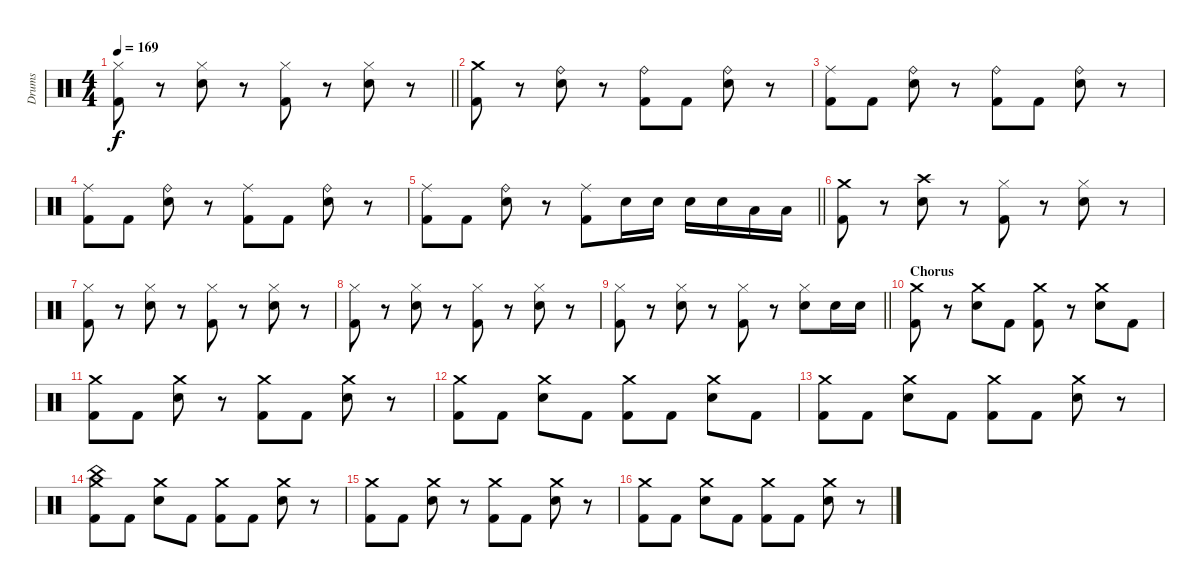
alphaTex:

\track ("Drums" "Drums") {instrument percussion}
\staff {score}
\articulation defaults
\ts (4 4)
\tempo 169
\clef neutral
\barLineRight lightlight
\ks c
("Hi-Hat (closed)" "Kick (hit) 2").8{dy f} r.8 ("Hi-Hat (closed)" "Electric Snare (hit)").8 r.8 ("Hi-Hat (closed)" "Kick (hit) 2").8 r.8 ("Hi-Hat (closed)" "Electric Snare (hit)").8 r.8 |
("Crash medium (hit)" "Kick (hit) 2").8 r.8 ("Ride (bell)" "Electric Snare (hit)").8 r.8 ("Ride (bell)" "Kick (hit) 2").8 "Kick (hit) 2".8 ("Ride (bell)" "Electric Snare (hit)").8 r.8 |
("Ride (middle)" "Kick (hit) 2").8 "Kick (hit) 2".8 ("Ride (bell)" "Electric Snare (hit)").8 r.8 ("Ride (bell)" "Kick (hit) 2").8 "Kick (hit) 2".8 ("Ride (bell)" "Electric Snare (hit)").8 r.8 |
("Ride (middle)" "Kick (hit) 2").8 "Kick (hit) 2".8 ("Ride (bell)" "Electric Snare (hit)").8 r.8 ("Ride (middle)" "Kick (hit) 2").8 "Kick (hit) 2".8 ("Ride (bell)" "Electric Snare (hit)").8 r.8 |
\barLineRight lightlight
("Ride (middle)" "Kick (hit) 2").8 "Kick (hit) 2".8 ("Ride (bell)" "Electric Snare (hit)").8 r.8 ("Ride (middle)" "Kick (hit) 2").8 "Electric Snare (hit)".16 "Electric Snare (hit)".16 "Electric Snare (hit)".16 "Electric Snare (hit)".16 "Low Tom (hit)".16 "Low Floor Tom (hit)".16 |
("Crash medium (hit)" "Kick (hit) 2").8 r.8 ("Crash high (hit)" "Electric Snare (hit)").8 r.8 ("Hi-Hat (closed)" "Kick (hit) 2").8 r.8 ("Hi-Hat (closed)" "Electric Snare (hit)").8 r.8 |
("Hi-Hat (closed)" "Kick (hit) 2").8 r.8 ("Hi-Hat (closed)" "Electric Snare (hit)").8 r.8 ("Hi-Hat (closed)" "Kick (hit) 2").8 r.8 ("Hi-Hat (closed)" "Electric Snare (hit)").8 r.8 |
("Hi-Hat (closed)" "Kick (hit) 2").8 r.8 ("Hi-Hat (closed)" "Electric Snare (hit)").8 r.8 ("Hi-Hat (closed)" "Kick (hit) 2").8 r.8 ("Hi-Hat (closed)" "Electric Snare (hit)").8 r.8 |
\barLineRight lightlight
("Hi-Hat (closed)" "Kick (hit) 2").8 r.8 ("Hi-Hat (closed)" "Electric Snare (hit)").8 r.8 ("Hi-Hat (closed)" "Kick (hit) 2").8 r.8 ("Hi-Hat (closed)" "Electric Snare (hit)").8 "Electric Snare (hit)".16 "Electric Snare (hit)".16 |
\section ("" "Chorus")
("Crash medium (hit)" "Kick (hit) 2").8 r.8 ("Crash medium (hit)" "Electric Snare (hit)").8 "Kick (hit) 2".8 ("Crash medium (hit)" "Kick (hit) 2").8 r.8 ("Crash medium (hit)" "Electric Snare (hit)").8 "Kick (hit) 2".8 |
("Crash medium (hit)" "Kick (hit) 2").8 "Kick (hit) 2".8 ("Crash medium (hit)" "Electric Snare (hit)").8 r.8 ("Crash medium (hit)" "Kick (hit) 2").8 "Kick (hit) 2".8 ("Crash medium (hit)" "Electric Snare (hit)").8 r.8 |
("Crash medium (hit)" "Kick (hit) 2").8 "Kick (hit) 2".8 ("Crash medium (hit)" "Electric Snare (hit)").8 "Kick (hit) 2".8 ("Crash medium (hit)" "Kick (hit) 2").8 "Kick (hit) 2".8 ("Crash medium (hit)" "Electric Snare (hit)").8 "Kick (hit) 2".8 |
("Crash medium (hit)" "Kick (hit) 2").8 "Kick (hit) 2".8 ("Crash medium (hit)" "Electric Snare (hit)").8 "Kick (hit) 2".8 ("Crash medium (hit)" "Kick (hit) 2").8 "Kick (hit) 2".8 ("Crash medium (hit)" "Electric Snare (hit)").8 r.8 |
("Crash medium (hit)" "China (hit)" "Kick (hit) 2").8 "Kick (hit) 2".8 ("Crash medium (hit)" "Electric Snare (hit)").8 "Kick (hit) 2".8 ("Crash medium (hit)" "Kick (hit) 2").8 "Kick (hit) 2".8 ("Crash medium (hit)" "Electric Snare (hit)").8 r.8 |
("Crash medium (hit)" "Kick (hit) 2").8 "Kick (hit) 2".8 ("Crash medium (hit)" "Electric Snare (hit)").8 r.8 ("Crash medium (hit)" "Kick (hit) 2").8 "Kick (hit) 2".8 ("Crash medium (hit)" "Electric Snare (hit)").8 r.8 |
("Crash medium (hit)" "Kick (hit) 2").8 "Kick (hit) 2".8 ("Crash medium (hit)" "Electric Snare (hit)").8 "Kick (hit) 2".8 ("Crash medium (hit)" "Kick (hit) 2").8 "Kick (hit) 2".8 ("Crash medium (hit)" "Electric Snare (hit)").8 r.8
